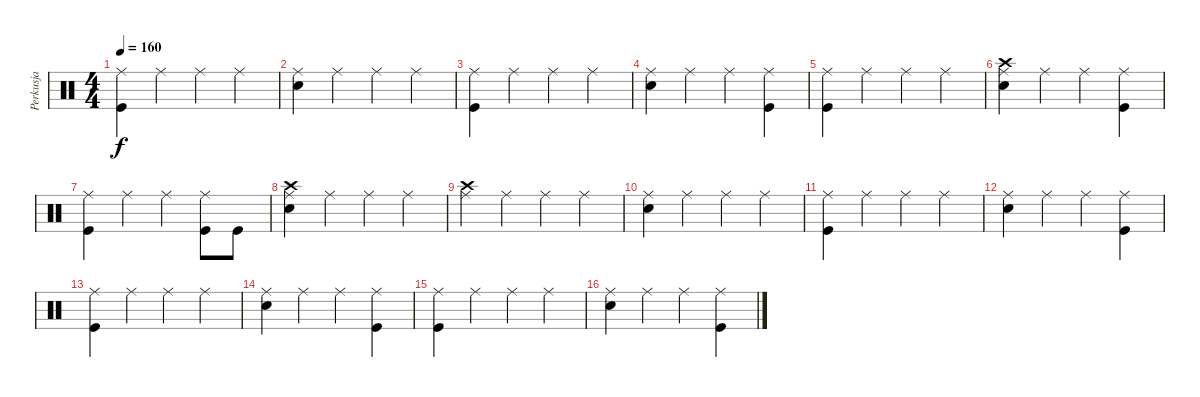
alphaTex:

\track ("Perkusja" "Perkusja") {instrument percussion}
\staff {score}
\articulation defaults
\ts (4 4)
\tempo 160
\clef neutral
\ks c
("Kick (hit)" "Ride (middle)").4{dy f} "Ride (middle)".4 "Ride (middle)".4 "Ride (middle)".4 |
("Snare (hit) 2" "Ride (middle)").4 "Ride (middle)".4 "Ride (middle)".4 "Ride (middle)".4 |
("Kick (hit)" "Ride (middle)").4 "Ride (middle)".4 "Ride (middle)".4 "Ride (middle)".4 |
("Snare (hit) 2" "Ride (middle)").4 "Ride (middle)".4 "Ride (middle)".4 ("Kick (hit)" "Ride (middle)").4 |
("Kick (hit)" "Ride (middle)").4 "Ride (middle)".4 "Ride (middle)".4 "Ride (middle)".4 |
("Snare (hit) 2" "Crash high (hit)" "Ride (middle)").4 "Ride (middle)".4 "Ride (middle)".4 ("Kick (hit)" "Ride (middle)").4 |
("Kick (hit)" "Ride (middle)").4 "Ride (middle)".4 "Ride (middle)".4 ("Kick (hit)" "Ride (middle)").8 "Kick (hit)".8 |
("Snare (hit) 2" "Crash high (hit)" "Ride (middle)").4 "Ride (middle)".4 "Ride (middle)".4 "Ride (middle)".4 |
("Crash high (hit)" "Ride (middle)").4 "Ride (middle)".4 "Ride (middle)".4 "Ride (middle)".4 |
("Snare (hit) 2" "Ride (middle)").4 "Ride (middle)".4 "Ride (middle)".4 "Ride (middle)".4 |
("Kick (hit)" "Ride (middle)").4 "Ride (middle)".4 "Ride (middle)".4 "Ride (middle)".4 |
("Snare (hit) 2" "Ride (middle)").4 "Ride (middle)".4 "Ride (middle)".4 ("Kick (hit)" "Ride (middle)").4 |
("Kick (hit)" "Ride (middle)").4 "Ride (middle)".4 "Ride (middle)".4 "Ride (middle)".4 |
("Snare (hit) 2" "Ride (middle)").4 "Ride (middle)".4 "Ride (middle)".4 ("Kick (hit)" "Ride (middle)").4 |
("Kick (hit)" "Ride (middle)").4 "Ride (middle)".4 "Ride (middle)".4 "Ride (middle)".4 |
("Snare (hit) 2" "Ride (middle)").4 "Ride (middle)".4 "Ride (middle)".4 ("Kick (hit)" "Ride (middle)").4
